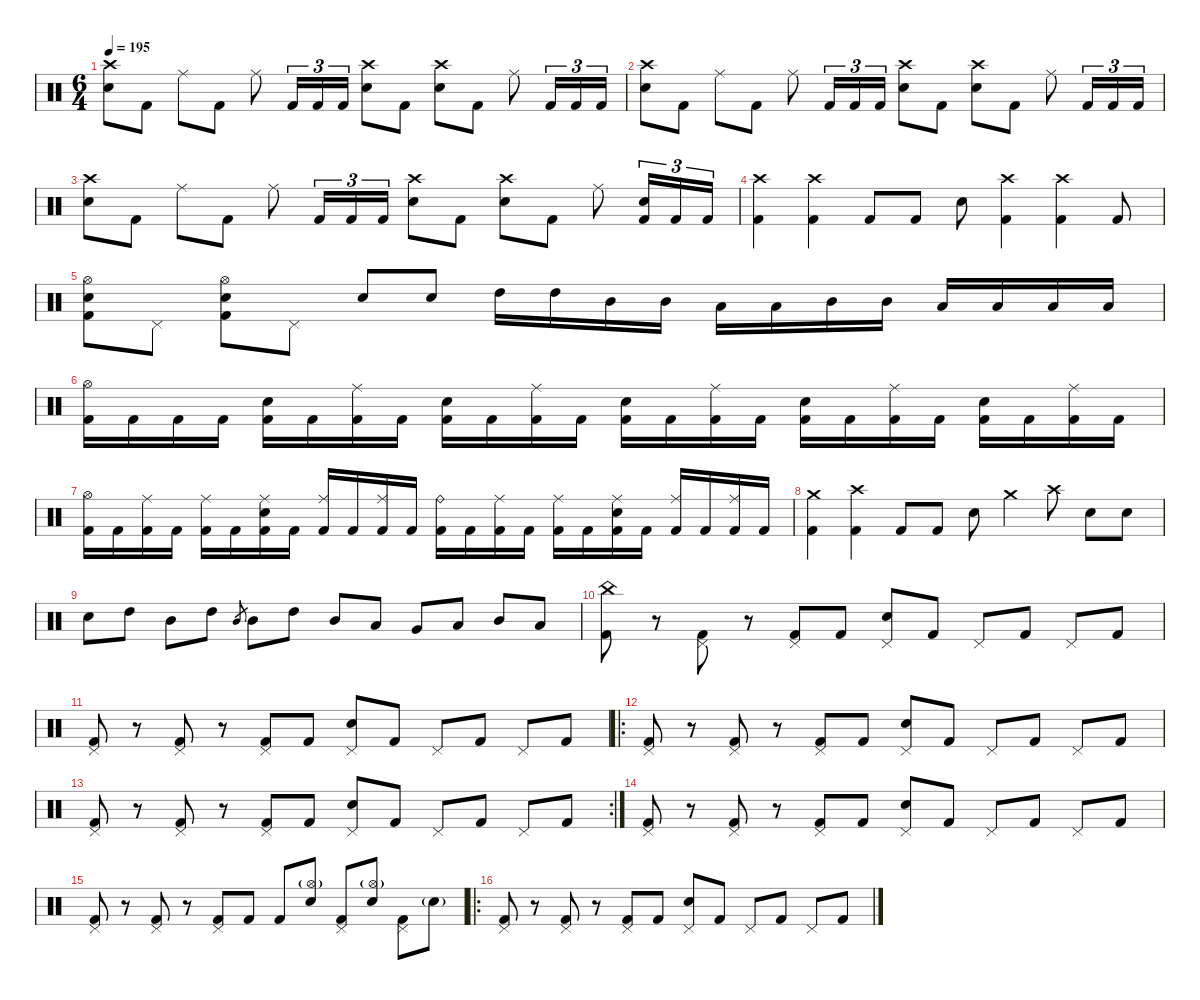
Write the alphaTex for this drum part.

\defaultSystemsLayout 4
\hideDynamics
\bracketExtendMode nobrackets
\singleTrackTrackNamePolicy hidden
\multiTrackTrackNamePolicy hidden
\firstSystemTrackNameMode fullname
\firstSystemTrackNameOrientation horizontal
\otherSystemsTrackNameOrientation horizontal
\track ("Drums" "drm.") {instrument percussion}
\staff {score}
\articulation defaults
\ts (6 4)
\tempo 195
\clef neutral
\ks c
("Crash high (hit)" "Snare (hit) 2").8{dy f beam Down} "Kick (hit) 2".8{beam Down} "Ride (middle)".8{beam Down} "Kick (hit) 2".8{beam Down} "Ride (middle)".8{beam Down} "Kick (hit) 2".16{tu (3 2) beam Up} "Kick (hit) 2".16{tu (3 2) beam Up} "Kick (hit) 2".16{tu (3 2) beam Up} ("Crash high (hit)" "Snare (hit) 2").8{beam Down} "Kick (hit) 2".8{beam Down} ("Crash high (hit)" "Snare (hit) 2").8{beam Down} "Kick (hit) 2".8{beam Down} "Ride (middle)".8{beam Down} "Kick (hit) 2".16{tu (3 2) beam Up} "Kick (hit) 2".16{tu (3 2) beam Up} "Kick (hit) 2".16{tu (3 2) beam Up} |
("Crash high (hit)" "Snare (hit) 2").8{beam Down} "Kick (hit) 2".8{beam Down} "Ride (middle)".8{beam Down} "Kick (hit) 2".8{beam Down} "Ride (middle)".8{beam Down} "Kick (hit) 2".16{tu (3 2) beam Up} "Kick (hit) 2".16{tu (3 2) beam Up} "Kick (hit) 2".16{tu (3 2) beam Up} ("Crash high (hit)" "Snare (hit) 2").8{beam Down} "Kick (hit) 2".8{beam Down} ("Crash high (hit)" "Snare (hit) 2").8{beam Down} "Kick (hit) 2".8{beam Down} "Ride (middle)".8{beam Down} "Kick (hit) 2".16{tu (3 2) beam Up} "Kick (hit) 2".16{tu (3 2) beam Up} "Kick (hit) 2".16{tu (3 2) beam Up} |
("Crash high (hit)" "Snare (hit) 2").8{beam Down} "Kick (hit) 2".8{beam Down} "Ride (middle)".8{beam Down} "Kick (hit) 2".8{beam Down} "Ride (middle)".8{beam Down} "Kick (hit) 2".16{tu (3 2) beam Up} "Kick (hit) 2".16{tu (3 2) beam Up} "Kick (hit) 2".16{tu (3 2) beam Up} ("Crash high (hit)" "Snare (hit) 2").8{beam Down} "Kick (hit) 2".8{beam Down} ("Crash high (hit)" "Snare (hit) 2").8{beam Down} "Kick (hit) 2".8{beam Down} "Ride (middle)".8{beam Down} ("Snare (hit) 2" "Kick (hit) 2").16{tu (3 2) beam Up} "Kick (hit) 2".16{tu (3 2) beam Up} "Kick (hit) 2".16{tu (3 2) beam Up} |
("Crash high (hit)" "Kick (hit) 2").4{beam Down} ("Crash high (hit)" "Kick (hit) 2").4{beam Down} "Kick (hit) 2".8{beam Up} "Kick (hit) 2".8{beam Up} "Snare (hit) 2".8{beam Down} ("Crash high (hit)" "Kick (hit) 2").4{beam Down} ("Crash high (hit)" "Kick (hit) 2").4{beam Down} "Kick (hit) 2".8{beam Up} |
("Hi-Hat (open)" "Snare (hit) 2" "Kick (hit) 2").8{beam Down} "Pedal Hi-Hat (hit)".8{beam Down} ("Hi-Hat (open)" "Snare (hit) 2" "Kick (hit) 2").8{beam Down} "Pedal Hi-Hat (hit)".8{beam Up} "Snare (hit) 2".8{beam Up} "Snare (hit) 2".8{beam Up} "High Tom (hit)".16{beam Down} "High Tom (hit)".16{beam Down} "Mid Tom (hit)".16{beam Down} "Mid Tom (hit)".16{beam Down} "Low Tom (hit)".16{beam Down} "Low Tom (hit)".16{beam Down} "Mid Tom (hit)".16{beam Up} "Mid Tom (hit)".16{beam Up} "Low Tom (hit)".16{beam Up} "Low Tom (hit)".16{beam Up} "Low Tom (hit)".16{beam Up} "Low Tom (hit)".16{beam Up} |
("Hi-Hat (open)" "Kick (hit) 2").16{beam Down} "Kick (hit) 2".16{beam Down} "Kick (hit) 2".16{beam Down} "Kick (hit) 2".16{beam Down} ("Snare (hit) 2" "Kick (hit) 2").16{beam Down} "Kick (hit) 2".16{beam Down} ("Ride (middle)" "Kick (hit) 2").16{beam Down} "Kick (hit) 2".16{beam Down} ("Snare (hit) 2" "Kick (hit) 2").16{beam Down} "Kick (hit) 2".16{beam Down} ("Ride (middle)" "Kick (hit) 2").16{beam Down} "Kick (hit) 2".16{beam Down} ("Snare (hit) 2" "Kick (hit) 2").16{beam Down} "Kick (hit) 2".16{beam Down} ("Ride (middle)" "Kick (hit) 2").16{beam Down} "Kick (hit) 2".16{beam Down} ("Snare (hit) 2" "Kick (hit) 2").16{beam Down} "Kick (hit) 2".16{beam Down} ("Ride (middle)" "Kick (hit) 2").16{beam Down} "Kick (hit) 2".16{beam Down} ("Snare (hit) 2" "Kick (hit) 2").16{beam Down} "Kick (hit) 2".16{beam Down} ("Ride (middle)" "Kick (hit) 2").16{beam Down} "Kick (hit) 2".16{beam Down} |
("Hi-Hat (open)" "Kick (hit) 2").16{beam Down} "Kick (hit) 2".16{beam Down} ("Ride (middle)" "Kick (hit) 2").16{beam Down} "Kick (hit) 2".16{beam Down} ("Ride (middle)" "Kick (hit) 2").16{beam Down} "Kick (hit) 2".16{beam Down} ("Ride (middle)" "Snare (hit) 2" "Kick (hit) 2").16{beam Up} "Kick (hit) 2".16{beam Up} ("Ride (middle)" "Kick (hit) 2").16{beam Up} "Kick (hit) 2".16{beam Up} ("Ride (middle)" "Kick (hit) 2").16{beam Up} "Kick (hit) 2".16{beam Up} ("Ride (bell)" "Kick (hit) 2").16{beam Down} "Kick (hit) 2".16{beam Down} ("Ride (middle)" "Kick (hit) 2").16{beam Down} "Kick (hit) 2".16{beam Down} ("Ride (middle)" "Kick (hit) 2").16{beam Down} "Kick (hit) 2".16{beam Down} ("Ride (middle)" "Snare (hit) 2" "Kick (hit) 2").16{beam Up} "Kick (hit) 2".16{beam Up} ("Ride (middle)" "Kick (hit) 2").16{beam Up} "Kick (hit) 2".16{beam Up} ("Ride (middle)" "Kick (hit) 2").16{beam Up} "Kick (hit) 2".16{beam Up} |
("Crash medium (hit)" "Kick (hit) 2").4{beam Down} ("Crash high (hit)" "Kick (hit) 2").4{beam Down} "Kick (hit) 2".8{beam Up} "Kick (hit) 2".8{beam Up} "Snare (hit) 2".8{beam Down} "Crash medium (hit)".4{beam Down} "Crash high (hit)".8{beam Down} "Snare (hit) 2".8{beam Down} "Snare (hit) 2".8{beam Down} |
"Snare (hit) 2".8{beam Down} "High Tom (hit)".8{beam Down} "Mid Tom (hit)".8{beam Down} "High Tom (hit)".8{beam Down} "Mid Tom (hit)".8{gr dy mf beam Up} "Mid Tom (hit)".8{dy f beam Down} "High Tom (hit)".8{beam Down} "Mid Tom (hit)".8{beam Up} "Low Tom (hit)".8{beam Up} "Very Low Tom (hit)".8{beam Up} "Low Tom (hit)".8{beam Up} "Mid Tom (hit)".8{beam Up} "Low Tom (hit)".8{beam Up} |
("China (hit)" "Kick (hit) 2").8{beam Down} r.8{beam Down} ("Pedal Hi-Hat (hit)" "Kick (hit) 2").8{beam Down} r.8{beam Down} ("Pedal Hi-Hat (hit)" "Kick (hit) 2").8{beam Up} "Kick (hit) 2".8{beam Up} ("Pedal Hi-Hat (hit)" "Snare (hit) 2").8{beam Up} "Kick (hit) 2".8{beam Up} "Pedal Hi-Hat (hit)".8{beam Up} "Kick (hit) 2".8{beam Up} "Pedal Hi-Hat (hit)".8{beam Up} "Kick (hit) 2".8{beam Up} |
("Pedal Hi-Hat (hit)" "Kick (hit) 2").8{beam Up} r.8{beam Up} ("Pedal Hi-Hat (hit)" "Kick (hit) 2").8{beam Up} r.8{beam Up} ("Pedal Hi-Hat (hit)" "Kick (hit) 2").8{beam Up} "Kick (hit) 2".8{beam Up} ("Pedal Hi-Hat (hit)" "Snare (hit) 2").8{beam Up} "Kick (hit) 2".8{beam Up} "Pedal Hi-Hat (hit)".8{beam Up} "Kick (hit) 2".8{beam Up} "Pedal Hi-Hat (hit)".8{beam Up} "Kick (hit) 2".8{beam Up} |
\ro
("Pedal Hi-Hat (hit)" "Kick (hit) 2").8{dy mf beam Up} r.8{beam Up} ("Pedal Hi-Hat (hit)" "Kick (hit) 2").8{beam Up} r.8{beam Up} ("Pedal Hi-Hat (hit)" "Kick (hit) 2").8{beam Up} "Kick (hit) 2".8{beam Up} ("Pedal Hi-Hat (hit)" "Snare (hit) 2").8{beam Up} "Kick (hit) 2".8{beam Up} "Pedal Hi-Hat (hit)".8{beam Up} "Kick (hit) 2".8{beam Up} "Pedal Hi-Hat (hit)".8{beam Up} "Kick (hit) 2".8{beam Up} |
\rc 2
("Pedal Hi-Hat (hit)" "Kick (hit) 2").8{beam Up} r.8{beam Up} ("Pedal Hi-Hat (hit)" "Kick (hit) 2").8{beam Up} r.8{beam Up} ("Pedal Hi-Hat (hit)" "Kick (hit) 2").8{beam Up} "Kick (hit) 2".8{beam Up} ("Pedal Hi-Hat (hit)" "Snare (hit) 2").8{beam Up} "Kick (hit) 2".8{beam Up} "Pedal Hi-Hat (hit)".8{beam Up} "Kick (hit) 2".8{beam Up} "Pedal Hi-Hat (hit)".8{beam Up} "Kick (hit) 2".8{beam Up} |
("Pedal Hi-Hat (hit)" "Kick (hit) 2").8{beam Up} r.8{beam Up} ("Pedal Hi-Hat (hit)" "Kick (hit) 2").8{beam Up} r.8{beam Up} ("Pedal Hi-Hat (hit)" "Kick (hit) 2").8{beam Up} "Kick (hit) 2".8{beam Up} ("Pedal Hi-Hat (hit)" "Snare (hit) 2").8{beam Up} "Kick (hit) 2".8{beam Up} "Pedal Hi-Hat (hit)".8{beam Up} "Kick (hit) 2".8{beam Up} "Pedal Hi-Hat (hit)".8{beam Up} "Kick (hit) 2".8{beam Up} |
("Pedal Hi-Hat (hit)" "Kick (hit) 2").8{beam Up} r.8{beam Up} ("Pedal Hi-Hat (hit)" "Kick (hit) 2").8{beam Up} r.8{beam Up} ("Pedal Hi-Hat (hit)" "Kick (hit) 2").8{beam Up} "Kick (hit) 2".8{beam Up} "Kick (hit) 2".8{beam Up} ("Hi-Hat (open)"{g} "Snare (hit) 2").8{beam Up} ("Pedal Hi-Hat (hit)" "Kick (hit) 2").8{beam Up} ("Hi-Hat (open)"{g} "Snare (hit) 2").8{beam Down} ("Pedal Hi-Hat (hit)" "Kick (hit) 2").8{beam Down} "Snare (hit) 2"{g}.8{beam Down} |
\ro
("Pedal Hi-Hat (hit)" "Kick (hit) 2").8{dy mp beam Up} r.8{beam Up} ("Pedal Hi-Hat (hit)" "Kick (hit) 2").8{beam Up} r.8{beam Up} ("Pedal Hi-Hat (hit)" "Kick (hit) 2").8{beam Up} "Kick (hit) 2".8{beam Up} ("Pedal Hi-Hat (hit)" "Snare (hit) 2").8{beam Up} "Kick (hit) 2".8{beam Up} "Pedal Hi-Hat (hit)".8{beam Up} "Kick (hit) 2".8{beam Up} "Pedal Hi-Hat (hit)".8{beam Up} "Kick (hit) 2".8{beam Up}
